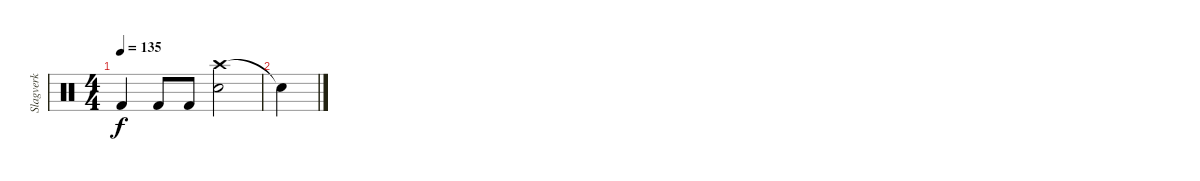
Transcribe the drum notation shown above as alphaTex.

\track ("Slagverk" "Slagverk") {instrument percussion}
\staff {score}
\articulation defaults
\ts (4 4)
\tempo 135
\clef neutral
\ks c "Kick (hit) 2".4{dy f} "Kick (hit) 2".8 "Kick (hit) 2".8
("Crash high (hit)" "Snare (hit) 2").2 |
"Snare (hit)"{t}.4
